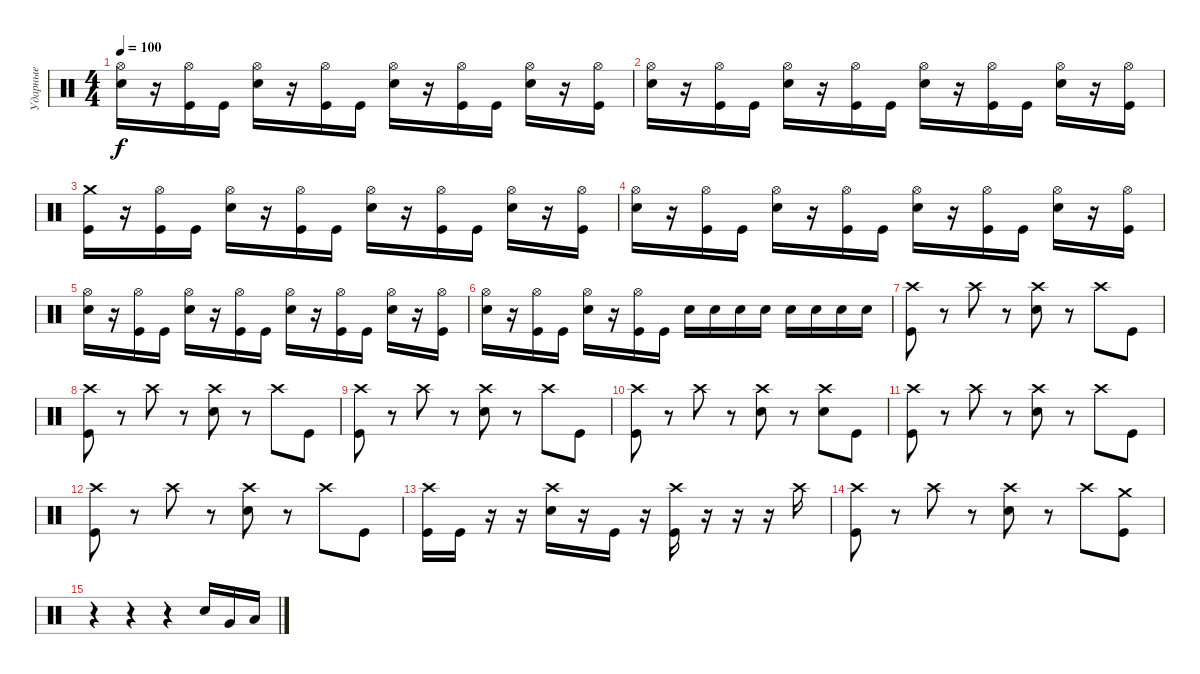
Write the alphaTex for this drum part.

\track ("Ударные" "Ударные") {instrument percussion}
\staff {score}
\articulation defaults
\ts (4 4)
\tempo 100
\clef neutral
\ks c
("Hi-Hat (open)" "Electric Snare (hit)").16{dy f} r.16 ("Hi-Hat (open)" "Kick (hit)").16 "Kick (hit)".16 ("Hi-Hat (open)" "Electric Snare (hit)").16 r.16 ("Hi-Hat (open)" "Kick (hit)").16 "Kick (hit)".16 ("Hi-Hat (open)" "Electric Snare (hit)").16 r.16 ("Hi-Hat (open)" "Kick (hit)").16 "Kick (hit)".16 ("Hi-Hat (open)" "Electric Snare (hit)").16 r.16 ("Hi-Hat (open)" "Kick (hit)").16 |
("Hi-Hat (open)" "Electric Snare (hit)").16 r.16 ("Hi-Hat (open)" "Kick (hit)").16 "Kick (hit)".16 ("Hi-Hat (open)" "Electric Snare (hit)").16 r.16 ("Hi-Hat (open)" "Kick (hit)").16 "Kick (hit)".16 ("Hi-Hat (open)" "Electric Snare (hit)").16 r.16 ("Hi-Hat (open)" "Kick (hit)").16 "Kick (hit)".16 ("Hi-Hat (open)" "Electric Snare (hit)").16 r.16 ("Hi-Hat (open)" "Kick (hit)").16 |
("Crash medium (hit)" "Kick (hit)").16 r.16 ("Hi-Hat (open)" "Kick (hit)").16 "Kick (hit)".16 ("Hi-Hat (open)" "Electric Snare (hit)").16 r.16 ("Hi-Hat (open)" "Kick (hit)").16 "Kick (hit)".16 ("Hi-Hat (open)" "Electric Snare (hit)").16 r.16 ("Hi-Hat (open)" "Kick (hit)").16 "Kick (hit)".16 ("Hi-Hat (open)" "Electric Snare (hit)").16 r.16 ("Hi-Hat (open)" "Kick (hit)").16 |
("Hi-Hat (open)" "Electric Snare (hit)").16 r.16 ("Hi-Hat (open)" "Kick (hit)").16 "Kick (hit)".16 ("Hi-Hat (open)" "Electric Snare (hit)").16 r.16 ("Hi-Hat (open)" "Kick (hit)").16 "Kick (hit)".16 ("Hi-Hat (open)" "Electric Snare (hit)").16 r.16 ("Hi-Hat (open)" "Kick (hit)").16 "Kick (hit)".16 ("Hi-Hat (open)" "Electric Snare (hit)").16 r.16 ("Hi-Hat (open)" "Kick (hit)").16 |
("Hi-Hat (open)" "Electric Snare (hit)").16 r.16 ("Hi-Hat (open)" "Kick (hit)").16 "Kick (hit)".16 ("Hi-Hat (open)" "Electric Snare (hit)").16 r.16 ("Hi-Hat (open)" "Kick (hit)").16 "Kick (hit)".16 ("Hi-Hat (open)" "Electric Snare (hit)").16 r.16 ("Hi-Hat (open)" "Kick (hit)").16 "Kick (hit)".16 ("Hi-Hat (open)" "Electric Snare (hit)").16 r.16 ("Hi-Hat (open)" "Kick (hit)").16 |
("Hi-Hat (open)" "Electric Snare (hit)").16 r.16 ("Hi-Hat (open)" "Kick (hit)").16 "Kick (hit)".16 ("Hi-Hat (open)" "Electric Snare (hit)").16 r.16 ("Hi-Hat (open)" "Kick (hit)").16 "Kick (hit)".16 "Electric Snare (hit)".16 "Electric Snare (hit)".16 "Electric Snare (hit)".16 "Electric Snare (hit)".16 "Electric Snare (hit)".16 "Electric Snare (hit)".16 "Electric Snare (hit)".16 "Electric Snare (hit)".16 |
("Crash high (hit)" "Kick (hit)").8 r.8 "Crash high (hit)".8 r.8 ("Crash high (hit)" "Electric Snare (hit)").8 r.8 "Crash high (hit)".8 "Kick (hit)".8 |
("Crash high (hit)" "Kick (hit)").8 r.8 "Crash high (hit)".8 r.8 ("Crash high (hit)" "Electric Snare (hit)").8 r.8 "Crash high (hit)".8 "Kick (hit)".8 |
("Crash high (hit)" "Kick (hit)").8 r.8 "Crash high (hit)".8 r.8 ("Crash high (hit)" "Electric Snare (hit)").8 r.8 "Crash high (hit)".8 "Kick (hit)".8 |
("Crash high (hit)" "Kick (hit)").8 r.8 "Crash high (hit)".8 r.8 ("Crash high (hit)" "Electric Snare (hit)").8 r.8 ("Crash high (hit)" "Electric Snare (hit)").8 "Kick (hit)".8 |
("Crash high (hit)" "Kick (hit)").8 r.8 "Crash high (hit)".8 r.8 ("Crash high (hit)" "Electric Snare (hit)").8 r.8 "Crash high (hit)".8 "Kick (hit)".8 |
("Crash high (hit)" "Kick (hit)").8 r.8 "Crash high (hit)".8 r.8 ("Crash high (hit)" "Electric Snare (hit)").8 r.8 "Crash high (hit)".8 "Kick (hit)".8 |
("Crash high (hit)" "Kick (hit)").16 "Kick (hit)".16 r.16 r.16 ("Crash high (hit)" "Electric Snare (hit)").16 r.16 "Kick (hit)".16 r.16 ("Crash high (hit)" "Kick (hit)").16 r.16 r.16 r.16 "Crash high (hit)".16 |
("Crash high (hit)" "Kick (hit)").8 r.8 "Crash high (hit)".8 r.8 ("Crash high (hit)" "Electric Snare (hit)").8 r.8 "Crash high (hit)".8 ("Crash medium (hit)" "Kick (hit)").8 |
r.4 r.4 r.4 "Electric Snare (hit)".16 "Very Low Tom (hit)".16 "Low Floor Tom (hit)".16
